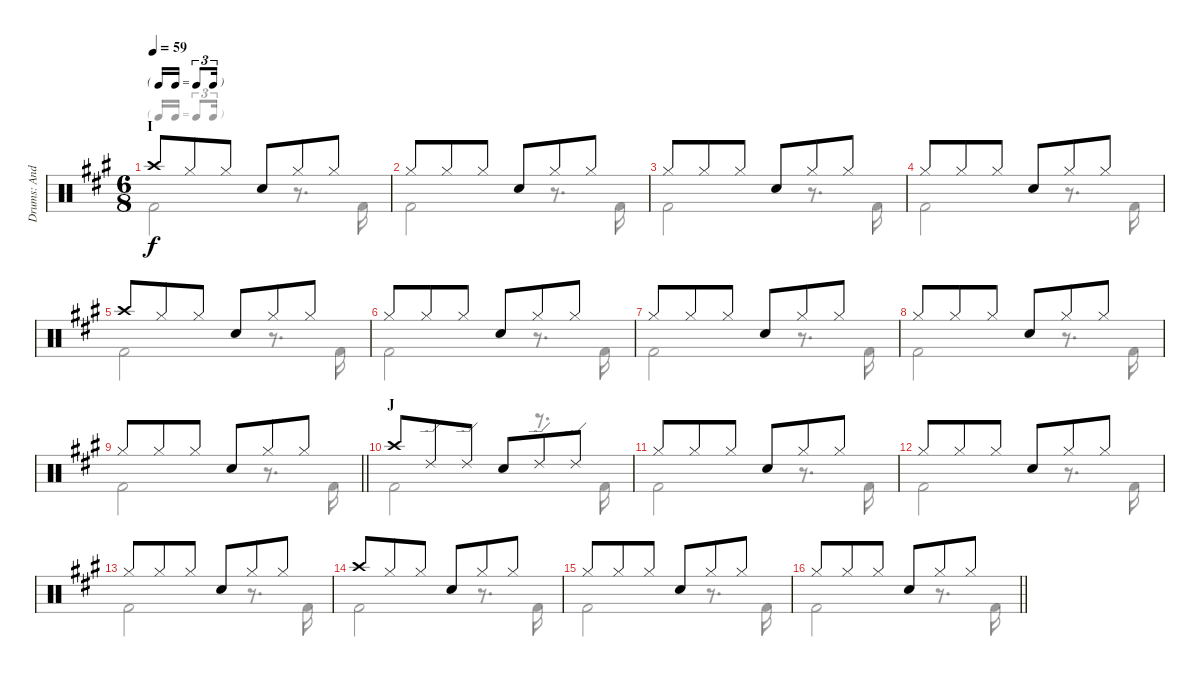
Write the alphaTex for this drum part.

\track ("Drums: Andy Newmark" "Drums: And") {instrument percussion}
\staff {score}
\articulation defaults
\voice
\ts (6 8)
\tf triplet16th
\section ("" "I")
\tempo 59
\clef neutral
\ks a "Crash high (hit)".8{dy f} "Hi-Hat (closed)".8 "Hi-Hat (closed)".8 "Snare (hit) 2".8 "Hi-Hat (closed)".8 "Hi-Hat (closed)".8
|
"Hi-Hat (closed)".8 "Hi-Hat (closed)".8 "Hi-Hat (closed)".8 "Snare (hit) 2".8 "Hi-Hat (closed)".8 "Hi-Hat (closed)".8 |
"Hi-Hat (closed)".8 "Hi-Hat (closed)".8 "Hi-Hat (closed)".8 "Snare (hit) 2".8 "Hi-Hat (closed)".8 "Hi-Hat (closed)".8 |
"Hi-Hat (closed)".8 "Hi-Hat (closed)".8 "Hi-Hat (closed)".8 "Snare (hit) 2".8 "Hi-Hat (closed)".8 "Hi-Hat (closed)".8 |
"Crash high (hit)".8 "Hi-Hat (closed)".8 "Hi-Hat (closed)".8 "Snare (hit) 2".8 "Hi-Hat (closed)".8 "Hi-Hat (closed)".8 |
"Hi-Hat (closed)".8 "Hi-Hat (closed)".8 "Hi-Hat (closed)".8 "Snare (hit) 2".8 "Hi-Hat (closed)".8 "Hi-Hat (closed)".8 |
"Hi-Hat (closed)".8 "Hi-Hat (closed)".8 "Hi-Hat (closed)".8 "Snare (hit) 2".8 "Hi-Hat (closed)".8 "Hi-Hat (closed)".8 |
"Hi-Hat (closed)".8 "Hi-Hat (closed)".8 "Hi-Hat (closed)".8 "Snare (hit) 2".8 "Hi-Hat (closed)".8 "Hi-Hat (closed)".8 |
\barLineRight lightlight "Hi-Hat (closed)".8 "Hi-Hat (closed)".8 "Hi-Hat (closed)".8 "Snare (hit) 2".8 "Hi-Hat (closed)".8 "Hi-Hat (closed)".8
|
\section ("" "J")
"Crash high (hit)".8 "Ride (edge) 2".8 "Ride (edge) 2".8 "Snare (hit) 2".8 "Ride (edge) 2".8 "Ride (edge) 2".8 |
"Hi-Hat (closed)".8 "Hi-Hat (closed)".8 "Hi-Hat (closed)".8 "Snare (hit) 2".8 "Hi-Hat (closed)".8 "Hi-Hat (closed)".8 |
"Hi-Hat (closed)".8 "Hi-Hat (closed)".8 "Hi-Hat (closed)".8 "Snare (hit) 2".8 "Hi-Hat (closed)".8 "Hi-Hat (closed)".8 |
"Hi-Hat (closed)".8 "Hi-Hat (closed)".8 "Hi-Hat (closed)".8 "Snare (hit) 2".8 "Hi-Hat (closed)".8 "Hi-Hat (closed)".8 |
"Crash high (hit)".8 "Hi-Hat (closed)".8 "Hi-Hat (closed)".8 "Snare (hit) 2".8 "Hi-Hat (closed)".8 "Hi-Hat (closed)".8 |
"Hi-Hat (closed)".8 "Hi-Hat (closed)".8 "Hi-Hat (closed)".8 "Snare (hit) 2".8 "Hi-Hat (closed)".8 "Hi-Hat (closed)".8 |
\barLineRight lightlight "Hi-Hat (closed)".8 "Hi-Hat (closed)".8 "Hi-Hat (closed)".8 "Snare (hit) 2".8 "Hi-Hat (closed)".8 "Hi-Hat (closed)".8
\voice
\clef neutral
\ottava regular
\simile none
\ks a "Kick (hit) 2".2{dy f}
r.8{d} "Kick (hit) 2".16 |
"Kick (hit) 2".2 r.8{d} "Kick (hit) 2".16 |
"Kick (hit) 2".2 r.8{d} "Kick (hit) 2".16 |
"Kick (hit) 2".2 r.8{d} "Kick (hit) 2".16 |
"Kick (hit) 2".2 r.8{d} "Kick (hit) 2".16 |
"Kick (hit) 2".2 r.8{d} "Kick (hit) 2".16 |
"Kick (hit) 2".2 r.8{d} "Kick (hit) 2".16 |
"Kick (hit) 2".2 r.8{d} "Kick (hit) 2".16 |
\barLineRight lightlight "Kick (hit) 2".2
r.8{d} "Kick (hit) 2".16 |
"Kick (hit) 2".2 r.8{d} "Kick (hit) 2".16 |
"Kick (hit) 2".2 r.8{d} "Kick (hit) 2".16 |
"Kick (hit) 2".2 r.8{d} "Kick (hit) 2".16 |
"Kick (hit) 2".2 r.8{d} "Kick (hit) 2".16 |
"Kick (hit) 2".2 r.8{d} "Kick (hit) 2".16 |
"Kick (hit) 2".2 r.8{d} "Kick (hit) 2".16 |
\barLineRight lightlight "Kick (hit) 2".2
r.8{d} "Kick (hit) 2".16
